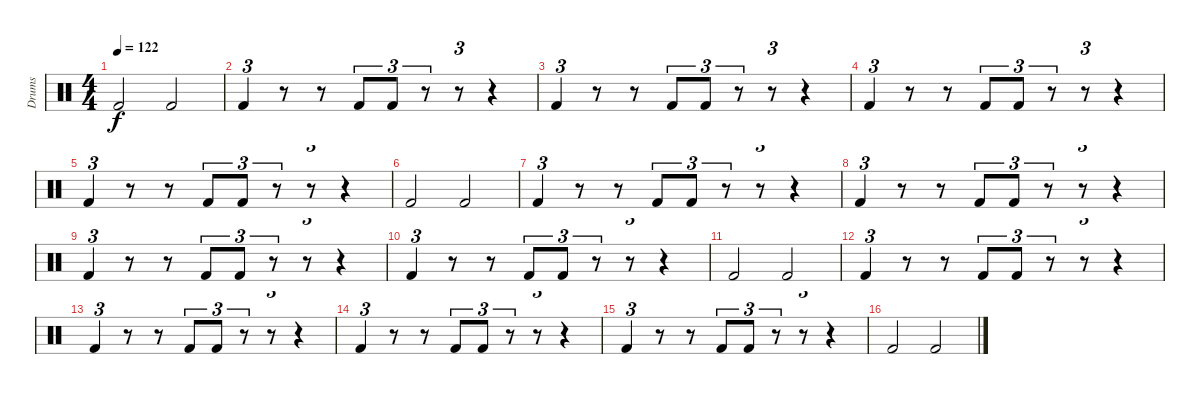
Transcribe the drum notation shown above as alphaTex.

\track ("Drums" "Drums") {instrument percussion}
\staff {score}
\articulation defaults
\ts (4 4)
\tempo 122
\clef neutral
\ks c "Kick (hit) 2".2{dy f} "Kick (hit) 2".2
|
"Kick (hit) 2".4{tu (3 2)} r.8 r.8 "Kick (hit) 2".8{tu (3 2)} "Kick (hit) 2".8{tu (3 2)} r.8{tu (3 2)} r.8{tu (3 2)} r.4 |
"Kick (hit) 2".4{tu (3 2)} r.8 r.8 "Kick (hit) 2".8{tu (3 2)} "Kick (hit) 2".8{tu (3 2)} r.8{tu (3 2)} r.8{tu (3 2)} r.4 |
"Kick (hit) 2".4{tu (3 2)} r.8 r.8 "Kick (hit) 2".8{tu (3 2)} "Kick (hit) 2".8{tu (3 2)} r.8{tu (3 2)} r.8{tu (3 2)} r.4 |
"Kick (hit) 2".4{tu (3 2)} r.8 r.8 "Kick (hit) 2".8{tu (3 2)} "Kick (hit) 2".8{tu (3 2)} r.8{tu (3 2)} r.8{tu (3 2)} r.4 |
"Kick (hit) 2".2 "Kick (hit) 2".2 |
"Kick (hit) 2".4{tu (3 2)} r.8 r.8 "Kick (hit) 2".8{tu (3 2)} "Kick (hit) 2".8{tu (3 2)} r.8{tu (3 2)} r.8{tu (3 2)} r.4 |
"Kick (hit) 2".4{tu (3 2)} r.8 r.8 "Kick (hit) 2".8{tu (3 2)} "Kick (hit) 2".8{tu (3 2)} r.8{tu (3 2)} r.8{tu (3 2)} r.4 |
"Kick (hit) 2".4{tu (3 2)} r.8 r.8 "Kick (hit) 2".8{tu (3 2)} "Kick (hit) 2".8{tu (3 2)} r.8{tu (3 2)} r.8{tu (3 2)} r.4 |
"Kick (hit) 2".4{tu (3 2)} r.8 r.8 "Kick (hit) 2".8{tu (3 2)} "Kick (hit) 2".8{tu (3 2)} r.8{tu (3 2)} r.8{tu (3 2)} r.4 |
"Kick (hit) 2".2 "Kick (hit) 2".2 |
"Kick (hit) 2".4{tu (3 2)} r.8 r.8 "Kick (hit) 2".8{tu (3 2)} "Kick (hit) 2".8{tu (3 2)} r.8{tu (3 2)} r.8{tu (3 2)} r.4 |
"Kick (hit) 2".4{tu (3 2)} r.8 r.8 "Kick (hit) 2".8{tu (3 2)} "Kick (hit) 2".8{tu (3 2)} r.8{tu (3 2)} r.8{tu (3 2)} r.4 |
"Kick (hit) 2".4{tu (3 2)} r.8 r.8 "Kick (hit) 2".8{tu (3 2)} "Kick (hit) 2".8{tu (3 2)} r.8{tu (3 2)} r.8{tu (3 2)} r.4 |
"Kick (hit) 2".4{tu (3 2)} r.8 r.8 "Kick (hit) 2".8{tu (3 2)} "Kick (hit) 2".8{tu (3 2)} r.8{tu (3 2)} r.8{tu (3 2)} r.4 |
"Kick (hit) 2".2 "Kick (hit) 2".2
